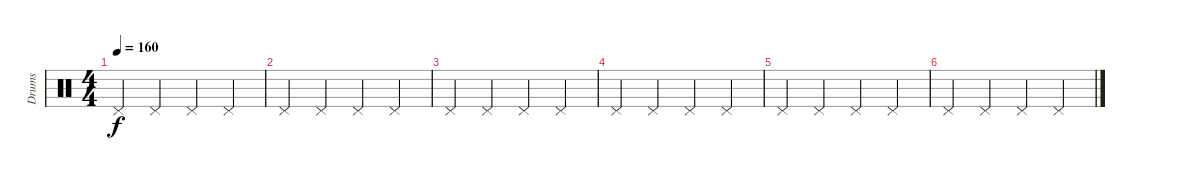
\track ("Drums" "Drums") {instrument percussion}
\staff {score}
\articulation defaults
\ts (4 4)
\tempo 160
\clef neutral
\ks c "Pedal Hi-Hat (hit)".4{dy f} "Pedal Hi-Hat (hit)".4 "Pedal Hi-Hat (hit)".4 "Pedal Hi-Hat (hit)".4
|
"Pedal Hi-Hat (hit)".4 "Pedal Hi-Hat (hit)".4 "Pedal Hi-Hat (hit)".4 "Pedal Hi-Hat (hit)".4 |
"Pedal Hi-Hat (hit)".4 "Pedal Hi-Hat (hit)".4 "Pedal Hi-Hat (hit)".4 "Pedal Hi-Hat (hit)".4 |
"Pedal Hi-Hat (hit)".4 "Pedal Hi-Hat (hit)".4 "Pedal Hi-Hat (hit)".4 "Pedal Hi-Hat (hit)".4 |
"Pedal Hi-Hat (hit)".4 "Pedal Hi-Hat (hit)".4 "Pedal Hi-Hat (hit)".4 "Pedal Hi-Hat (hit)".4 |
"Pedal Hi-Hat (hit)".4 "Pedal Hi-Hat (hit)".4 "Pedal Hi-Hat (hit)".4 "Pedal Hi-Hat (hit)".4
